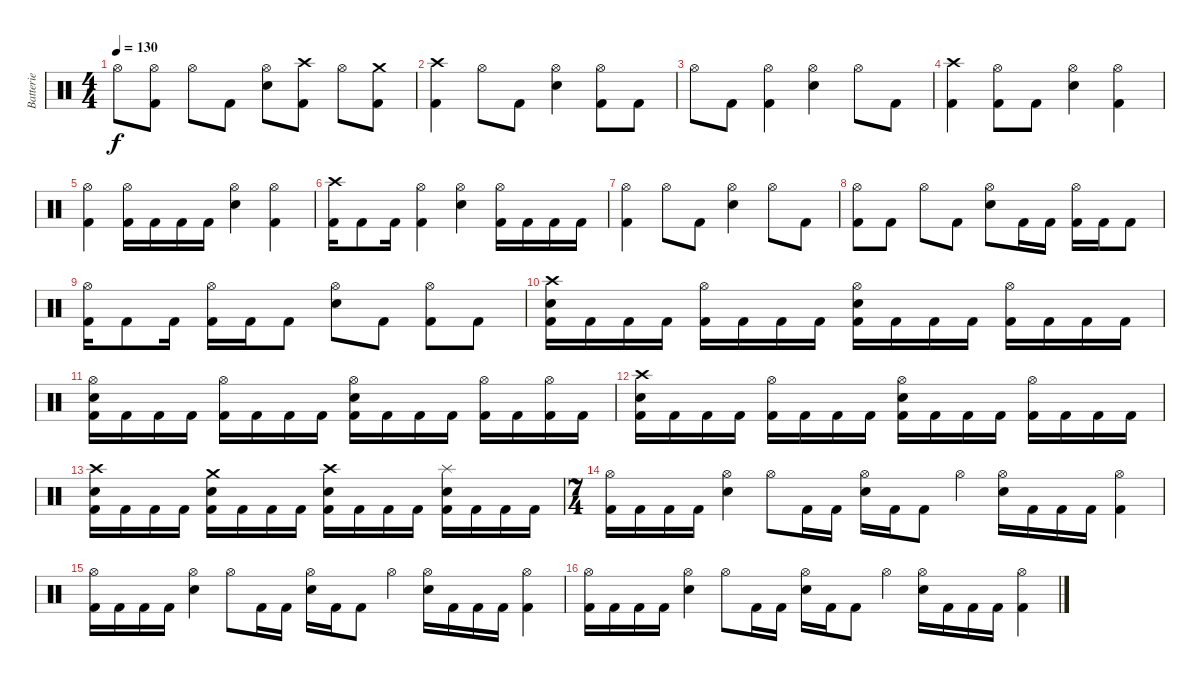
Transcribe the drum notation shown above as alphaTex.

\track ("Batterie" "Batterie") {instrument percussion}
\staff {score}
\articulation defaults
\ts (4 4)
\tempo 130
\clef neutral
\ks c "Hi-Hat (open)".8{dy f}
("Hi-Hat (open)" "Kick (hit) 2").8 "Hi-Hat (open)".8 "Kick (hit) 2".8 ("Hi-Hat (open)" "Snare (hit) 2").8 ("Crash high (hit)" "Kick (hit) 2").8 "Hi-Hat (open)".8 ("Crash medium (hit)" "Kick (hit) 2").8 |
("Crash high (hit)" "Kick (hit) 2").4 "Hi-Hat (open)".8 "Kick (hit) 2".8 ("Hi-Hat (open)" "Snare (hit) 2").4 ("Hi-Hat (open)" "Kick (hit) 2").8 "Kick (hit) 2".8 |
"Hi-Hat (open)".8 "Kick (hit) 2".8 ("Hi-Hat (open)" "Kick (hit) 2").4 ("Hi-Hat (open)" "Snare (hit) 2").4 "Hi-Hat (open)".8 "Kick (hit) 2".8 |
("Crash high (hit)" "Kick (hit) 2").4 ("Hi-Hat (open)" "Kick (hit) 2").8 "Kick (hit) 2".8 ("Hi-Hat (open)" "Snare (hit) 2").4 ("Hi-Hat (open)" "Kick (hit) 2").4 |
("Hi-Hat (open)" "Kick (hit) 2").4 ("Hi-Hat (open)" "Kick (hit) 2").16 "Kick (hit) 2".16 "Kick (hit) 2".16 "Kick (hit) 2".16 ("Hi-Hat (open)" "Snare (hit) 2").4 ("Hi-Hat (open)" "Kick (hit) 2").4 |
("Crash high (hit)" "Kick (hit) 2").16 "Kick (hit) 2".8 "Kick (hit) 2".16 ("Hi-Hat (open)" "Kick (hit) 2").4 ("Hi-Hat (open)" "Snare (hit) 2").4 ("Hi-Hat (open)" "Kick (hit) 2").16 "Kick (hit) 2".16 "Kick (hit) 2".16 "Kick (hit) 2".16 |
("Hi-Hat (open)" "Kick (hit) 2").4 "Hi-Hat (open)".8 "Kick (hit) 2".8 ("Hi-Hat (open)" "Snare (hit) 2").4 "Hi-Hat (open)".8 "Kick (hit) 2".8 |
("Hi-Hat (open)" "Kick (hit) 2").8 "Kick (hit) 2".8 "Hi-Hat (open)".8 "Kick (hit) 2".8 ("Hi-Hat (open)" "Snare (hit) 2").8 "Kick (hit) 2".16 "Kick (hit) 2".16 ("Hi-Hat (open)" "Kick (hit) 2").16 "Kick (hit) 2".16 "Kick (hit) 2".8 |
("Hi-Hat (open)" "Kick (hit) 2").16 "Kick (hit) 2".8 "Kick (hit) 2".16 ("Hi-Hat (open)" "Kick (hit) 2").16 "Kick (hit) 2".16 "Kick (hit) 2".8 ("Hi-Hat (open)" "Snare (hit) 2").8 "Kick (hit) 2".8 ("Hi-Hat (open)" "Kick (hit) 2").8 "Kick (hit) 2".8 |
("Crash high (hit)" "Snare (hit) 2" "Kick (hit) 2").16 "Kick (hit) 2".16 "Kick (hit) 2".16 "Kick (hit) 2".16 ("Hi-Hat (open)" "Kick (hit) 2").16 "Kick (hit) 2".16 "Kick (hit) 2".16 "Kick (hit) 2".16 ("Hi-Hat (open)" "Snare (hit) 2" "Kick (hit) 2").16 "Kick (hit) 2".16 "Kick (hit) 2".16 "Kick (hit) 2".16 ("Hi-Hat (open)" "Kick (hit) 2").16 "Kick (hit) 2".16 "Kick (hit) 2".16 "Kick (hit) 2".16 |
("Hi-Hat (open)" "Snare (hit) 2" "Kick (hit) 2").16 "Kick (hit) 2".16 "Kick (hit) 2".16 "Kick (hit) 2".16 ("Hi-Hat (open)" "Kick (hit) 2").16 "Kick (hit) 2".16 "Kick (hit) 2".16 "Kick (hit) 2".16 ("Hi-Hat (open)" "Snare (hit) 2" "Kick (hit) 2").16 "Kick (hit) 2".16 "Kick (hit) 2".16 "Kick (hit) 2".16 ("Hi-Hat (open)" "Kick (hit) 2").16 "Kick (hit) 2".16 ("Hi-Hat (open)" "Kick (hit) 2").16 "Kick (hit) 2".16 |
("Crash high (hit)" "Snare (hit) 2" "Kick (hit) 2").16 "Kick (hit) 2".16 "Kick (hit) 2".16 "Kick (hit) 2".16 ("Hi-Hat (open)" "Kick (hit) 2").16 "Kick (hit) 2".16 "Kick (hit) 2".16 "Kick (hit) 2".16 ("Hi-Hat (open)" "Snare (hit) 2" "Kick (hit) 2").16 "Kick (hit) 2".16 "Kick (hit) 2".16 "Kick (hit) 2".16 ("Hi-Hat (open)" "Kick (hit) 2").16 "Kick (hit) 2".16 "Kick (hit) 2".16 "Kick (hit) 2".16 |
("Crash high (hit)" "Snare (hit) 2" "Kick (hit) 2").16 "Kick (hit) 2".16 "Kick (hit) 2".16 "Kick (hit) 2".16 ("Crash medium (hit)" "Snare (hit) 2" "Kick (hit) 2").16 "Kick (hit) 2".16 "Kick (hit) 2".16 "Kick (hit) 2".16 ("Crash high (hit)" "Snare (hit) 2" "Kick (hit) 2").16 "Kick (hit) 2".16 "Kick (hit) 2".16 "Kick (hit) 2".16 ("Splash (hit)" "Snare (hit) 2" "Kick (hit) 2").16 "Kick (hit) 2".16 "Kick (hit) 2".16 "Kick (hit) 2".16 |
\ts (7 4)
("Hi-Hat (open)" "Kick (hit) 2").16 "Kick (hit) 2".16 "Kick (hit) 2".16 "Kick (hit) 2".16 ("Hi-Hat (open)" "Snare (hit) 2").4 "Hi-Hat (open)".8 "Kick (hit) 2".16 "Kick (hit) 2".16 ("Hi-Hat (open)" "Snare (hit) 2").16 "Kick (hit) 2".16 "Kick (hit) 2".8 "Hi-Hat (open)".4 ("Hi-Hat (open)" "Snare (hit) 2").16 "Kick (hit) 2".16 "Kick (hit) 2".16 "Kick (hit) 2".16 ("Hi-Hat (open)" "Kick (hit) 2").4 |
("Hi-Hat (open)" "Kick (hit) 2").16 "Kick (hit) 2".16 "Kick (hit) 2".16 "Kick (hit) 2".16 ("Hi-Hat (open)" "Snare (hit) 2").4 "Hi-Hat (open)".8 "Kick (hit) 2".16 "Kick (hit) 2".16 ("Hi-Hat (open)" "Snare (hit) 2").16 "Kick (hit) 2".16 "Kick (hit) 2".8 "Hi-Hat (open)".4 ("Hi-Hat (open)" "Snare (hit) 2").16 "Kick (hit) 2".16 "Kick (hit) 2".16 "Kick (hit) 2".16 ("Hi-Hat (open)" "Kick (hit) 2").4 |
("Hi-Hat (open)" "Kick (hit) 2").16 "Kick (hit) 2".16 "Kick (hit) 2".16 "Kick (hit) 2".16 ("Hi-Hat (open)" "Snare (hit) 2").4 "Hi-Hat (open)".8 "Kick (hit) 2".16 "Kick (hit) 2".16 ("Hi-Hat (open)" "Snare (hit) 2").16 "Kick (hit) 2".16 "Kick (hit) 2".8 "Hi-Hat (open)".4 ("Hi-Hat (open)" "Snare (hit) 2").16 "Kick (hit) 2".16 "Kick (hit) 2".16 "Kick (hit) 2".16 ("Hi-Hat (open)" "Kick (hit) 2").4
